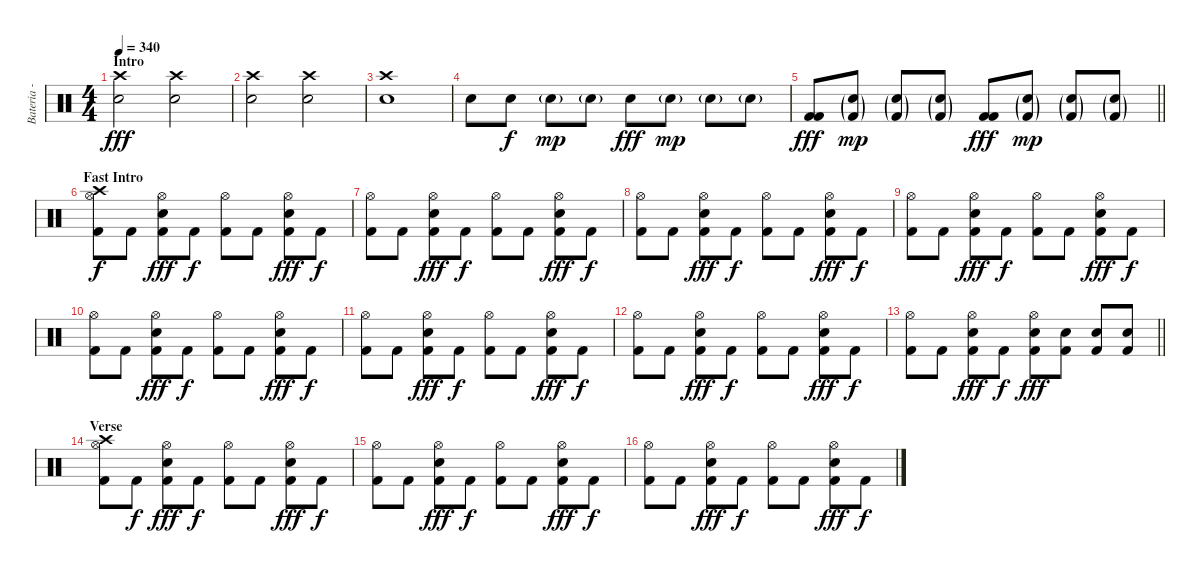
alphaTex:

\track ("Bateria - Larzon" "Bateria - ") {instrument percussion}
\staff {score}
\articulation defaults
\ts (4 4)
\section ("" "Intro")
\tempo 340
\clef neutral
\ks c
("Crash high (hit)" "Snare (hit) 2").2{dy fff} ("Crash high (hit)" "Snare (hit) 2").2 |
("Crash high (hit)" "Snare (hit) 2").2 ("Crash high (hit)" "Snare (hit) 2").2 |
("Crash high (hit)" "Snare (hit) 2").1 |
"Snare (hit) 2".8 "Snare (hit) 2".8{dy f} "Snare (hit) 2"{g}.8{dy mp} "Snare (hit) 2"{g}.8 "Snare (hit) 2".8{dy fff} "Snare (hit) 2"{g}.8{dy mp} "Snare (hit) 2"{g}.8 "Snare (hit) 2"{g}.8 |
\barLineRight lightlight
("Kick (hit) 2" "Kick (hit) 2").8{dy fff} ("Kick (hit) 2"{g} "Snare (hit) 2"{g}).8{dy mp} ("Kick (hit) 2"{g} "Snare (hit) 2"{g}).8 ("Kick (hit) 2"{g} "Snare (hit) 2"{g}).8 ("Kick (hit) 2" "Kick (hit) 2").8{dy fff} ("Kick (hit) 2"{g} "Snare (hit) 2"{g}).8{dy mp} ("Kick (hit) 2"{g} "Snare (hit) 2"{g}).8 ("Kick (hit) 2"{g} "Snare (hit) 2"{g}).8 |
\section ("" "Fast Intro")
("Crash high (hit)" "Kick (hit) 2" "Hi-Hat (open)").8{dy f} "Kick (hit) 2".8 ("Kick (hit) 2" "Hi-Hat (open)" "Snare (hit) 2").8{dy fff} "Kick (hit) 2".8{dy f} ("Kick (hit) 2" "Hi-Hat (open)").8 "Kick (hit) 2".8 ("Kick (hit) 2" "Hi-Hat (open)" "Snare (hit) 2").8{dy fff} "Kick (hit) 2".8{dy f} |
("Kick (hit) 2" "Hi-Hat (open)").8 "Kick (hit) 2".8 ("Kick (hit) 2" "Hi-Hat (open)" "Snare (hit) 2").8{dy fff} "Kick (hit) 2".8{dy f} ("Kick (hit) 2" "Hi-Hat (open)").8 "Kick (hit) 2".8 ("Kick (hit) 2" "Hi-Hat (open)" "Snare (hit) 2").8{dy fff} "Kick (hit) 2".8{dy f} |
("Kick (hit) 2" "Hi-Hat (open)").8 "Kick (hit) 2".8 ("Kick (hit) 2" "Hi-Hat (open)" "Snare (hit) 2").8{dy fff} "Kick (hit) 2".8{dy f} ("Kick (hit) 2" "Hi-Hat (open)").8 "Kick (hit) 2".8 ("Kick (hit) 2" "Hi-Hat (open)" "Snare (hit) 2").8{dy fff} "Kick (hit) 2".8{dy f} |
("Kick (hit) 2" "Hi-Hat (open)").8 "Kick (hit) 2".8 ("Kick (hit) 2" "Hi-Hat (open)" "Snare (hit) 2").8{dy fff} "Kick (hit) 2".8{dy f} ("Kick (hit) 2" "Hi-Hat (open)").8 "Kick (hit) 2".8 ("Kick (hit) 2" "Hi-Hat (open)" "Snare (hit) 2").8{dy fff} "Kick (hit) 2".8{dy f} |
("Kick (hit) 2" "Hi-Hat (open)").8 "Kick (hit) 2".8 ("Kick (hit) 2" "Hi-Hat (open)" "Snare (hit) 2").8{dy fff} "Kick (hit) 2".8{dy f} ("Kick (hit) 2" "Hi-Hat (open)").8 "Kick (hit) 2".8 ("Kick (hit) 2" "Hi-Hat (open)" "Snare (hit) 2").8{dy fff} "Kick (hit) 2".8{dy f} |
("Kick (hit) 2" "Hi-Hat (open)").8 "Kick (hit) 2".8 ("Kick (hit) 2" "Hi-Hat (open)" "Snare (hit) 2").8{dy fff} "Kick (hit) 2".8{dy f} ("Kick (hit) 2" "Hi-Hat (open)").8 "Kick (hit) 2".8 ("Kick (hit) 2" "Hi-Hat (open)" "Snare (hit) 2").8{dy fff} "Kick (hit) 2".8{dy f} |
("Kick (hit) 2" "Hi-Hat (open)").8 "Kick (hit) 2".8 ("Kick (hit) 2" "Hi-Hat (open)" "Snare (hit) 2").8{dy fff} "Kick (hit) 2".8{dy f} ("Kick (hit) 2" "Hi-Hat (open)").8 "Kick (hit) 2".8 ("Kick (hit) 2" "Hi-Hat (open)" "Snare (hit) 2").8{dy fff} "Kick (hit) 2".8{dy f} |
\barLineRight lightlight
("Kick (hit) 2" "Hi-Hat (open)").8 "Kick (hit) 2".8 ("Kick (hit) 2" "Hi-Hat (open)" "Snare (hit) 2").8{dy fff} "Kick (hit) 2".8{dy f} ("Kick (hit) 2" "Hi-Hat (open)" "Snare (hit) 2").8{dy fff} ("Kick (hit) 2" "Snare (hit) 2").8 ("Kick (hit) 2" "Snare (hit) 2").8 ("Kick (hit) 2" "Snare (hit) 2").8 |
\section ("" "Verse")
("Crash high (hit)" "Kick (hit) 2" "Hi-Hat (open)").8 "Kick (hit) 2".8{dy f} ("Kick (hit) 2" "Hi-Hat (open)" "Snare (hit) 2").8{dy fff} "Kick (hit) 2".8{dy f} ("Kick (hit) 2" "Hi-Hat (open)").8 "Kick (hit) 2".8 ("Kick (hit) 2" "Hi-Hat (open)" "Snare (hit) 2").8{dy fff} "Kick (hit) 2".8{dy f} |
("Kick (hit) 2" "Hi-Hat (open)").8 "Kick (hit) 2".8 ("Kick (hit) 2" "Hi-Hat (open)" "Snare (hit) 2").8{dy fff} "Kick (hit) 2".8{dy f} ("Kick (hit) 2" "Hi-Hat (open)").8 "Kick (hit) 2".8 ("Kick (hit) 2" "Hi-Hat (open)" "Snare (hit) 2").8{dy fff} "Kick (hit) 2".8{dy f} |
("Kick (hit) 2" "Hi-Hat (open)").8 "Kick (hit) 2".8 ("Kick (hit) 2" "Hi-Hat (open)" "Snare (hit) 2").8{dy fff} "Kick (hit) 2".8{dy f} ("Kick (hit) 2" "Hi-Hat (open)").8 "Kick (hit) 2".8 ("Kick (hit) 2" "Hi-Hat (open)" "Snare (hit) 2").8{dy fff} "Kick (hit) 2".8{dy f}
